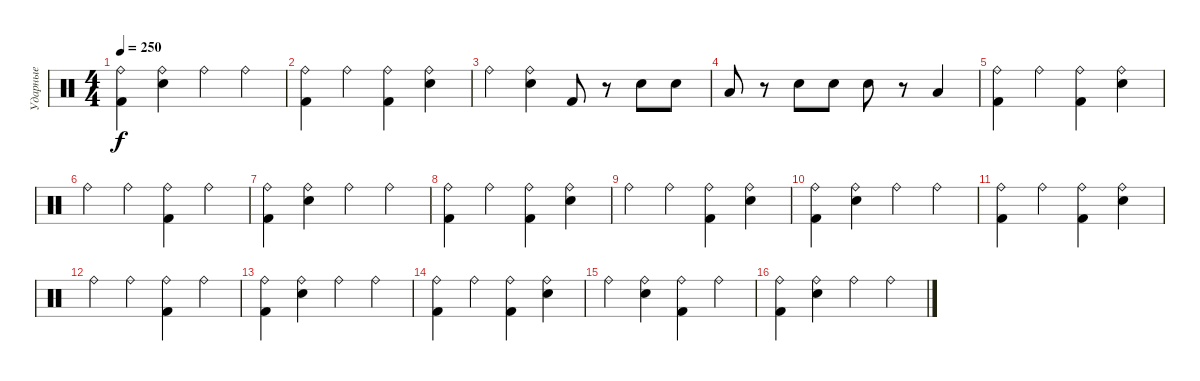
\track ("Ударные" "Ударные") {instrument percussion}
\staff {score}
\articulation defaults
\ts (4 4)
\tempo 250
\clef neutral
\ks c
("Ride (bell)" "Kick (hit) 2").4{dy f} ("Snare (hit) 2" "Ride (bell)").4 "Ride (bell)".4 "Ride (bell)".4 |
("Ride (bell)" "Kick (hit) 2").4 "Ride (bell)".4 ("Ride (bell)" "Kick (hit) 2").4 ("Snare (hit) 2" "Ride (bell)").4 |
"Ride (bell)".4 ("Snare (hit) 2" "Ride (bell)").4 "Kick (hit) 2".8 r.8 "Snare (hit) 2".8 "Snare (hit) 2".8 |
"Low Tom (hit)".8 r.8 "Snare (hit) 2".8 "Snare (hit) 2".8 "Snare (hit) 2".8 r.8 "Low Tom (hit)".4 |
("Ride (bell)" "Kick (hit) 2").4 "Ride (bell)".4 ("Ride (bell)" "Kick (hit) 2").4 ("Snare (hit) 2" "Ride (bell)").4 |
"Ride (bell)".4 "Ride (bell)".4 ("Ride (bell)" "Kick (hit) 2").4 "Ride (bell)".4 |
("Ride (bell)" "Kick (hit) 2").4 ("Snare (hit) 2" "Ride (bell)").4 "Ride (bell)".4 "Ride (bell)".4 |
("Ride (bell)" "Kick (hit) 2").4 "Ride (bell)".4 ("Ride (bell)" "Kick (hit) 2").4 ("Snare (hit) 2" "Ride (bell)").4 |
"Ride (bell)".4 "Ride (bell)".4 ("Ride (bell)" "Kick (hit) 2").4 ("Snare (hit) 2" "Ride (bell)").4 |
("Ride (bell)" "Kick (hit) 2").4 ("Snare (hit) 2" "Ride (bell)").4 "Ride (bell)".4 "Ride (bell)".4 |
("Ride (bell)" "Kick (hit) 2").4 "Ride (bell)".4 ("Ride (bell)" "Kick (hit) 2").4 ("Snare (hit) 2" "Ride (bell)").4 |
"Ride (bell)".4 "Ride (bell)".4 ("Ride (bell)" "Kick (hit) 2").4 "Ride (bell)".4 |
("Ride (bell)" "Kick (hit) 2").4 ("Snare (hit) 2" "Ride (bell)").4 "Ride (bell)".4 "Ride (bell)".4 |
("Ride (bell)" "Kick (hit) 2").4 "Ride (bell)".4 ("Ride (bell)" "Kick (hit) 2").4 ("Snare (hit) 2" "Ride (bell)").4 |
"Ride (bell)".4 ("Snare (hit) 2" "Ride (bell)").4 ("Ride (bell)" "Kick (hit) 2").4 "Ride (bell)".4 |
("Ride (bell)" "Kick (hit) 2").4 ("Snare (hit) 2" "Ride (bell)").4 "Ride (bell)".4 "Ride (bell)".4
